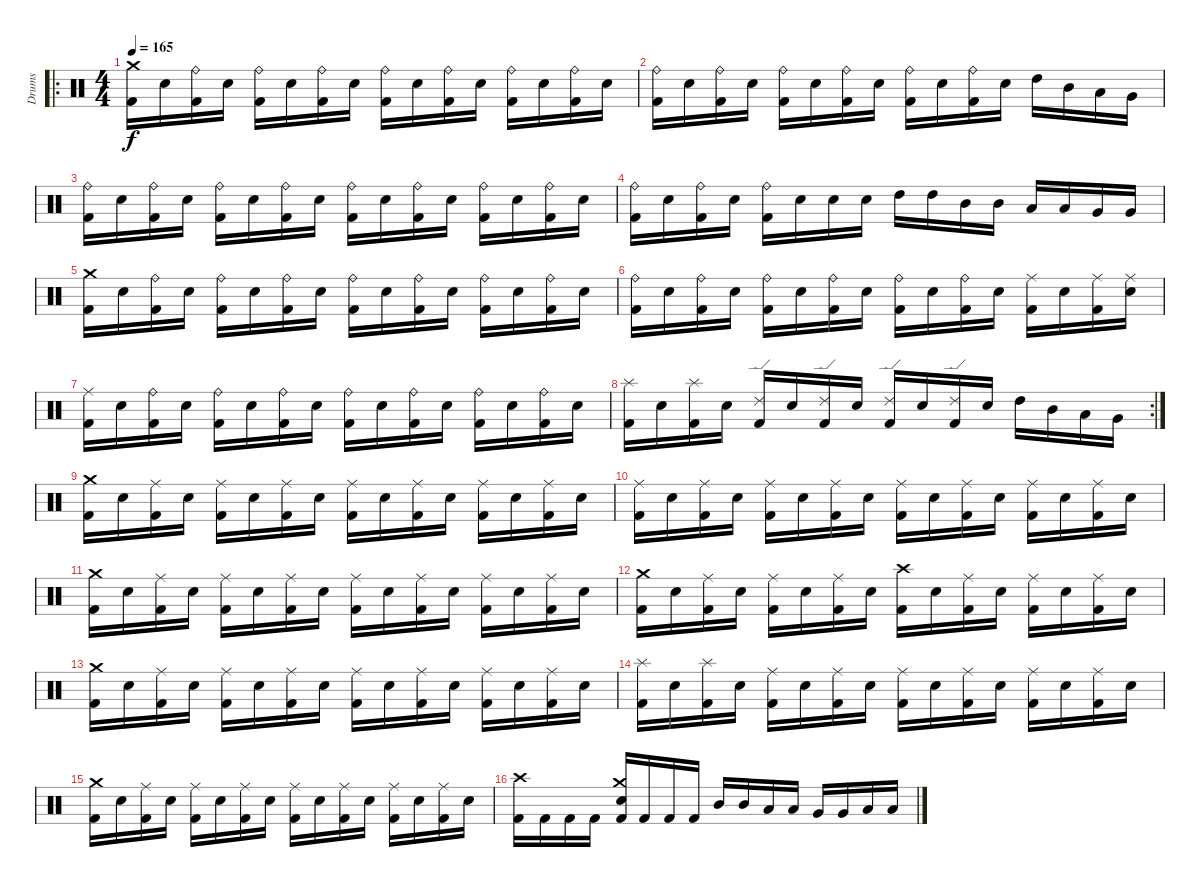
\track ("Drums" "Drums") {instrument percussion}
\staff {score}
\articulation defaults
\ro
\ts (4 4)
\tempo 165
\clef neutral
\ks c
("Kick (hit) 2" "Crash medium (hit)").16{dy f} "Electric Snare (hit)".16 ("Kick (hit) 2" "Ride (bell)").16 "Electric Snare (hit)".16 ("Kick (hit) 2" "Ride (bell)").16 "Electric Snare (hit)".16 ("Kick (hit) 2" "Ride (bell)").16 "Electric Snare (hit)".16 ("Kick (hit) 2" "Ride (bell)").16 "Electric Snare (hit)".16 ("Kick (hit) 2" "Ride (bell)").16 "Electric Snare (hit)".16 ("Kick (hit) 2" "Ride (bell)").16 "Electric Snare (hit)".16 ("Kick (hit) 2" "Ride (bell)").16 "Electric Snare (hit)".16 |
("Kick (hit) 2" "Ride (bell)").16 "Electric Snare (hit)".16 ("Kick (hit) 2" "Ride (bell)").16 "Electric Snare (hit)".16 ("Kick (hit) 2" "Ride (bell)").16 "Electric Snare (hit)".16 ("Kick (hit) 2" "Ride (bell)").16 "Electric Snare (hit)".16 ("Kick (hit) 2" "Ride (bell)").16 "Electric Snare (hit)".16 ("Kick (hit) 2" "Ride (bell)").16 "Electric Snare (hit)".16 "High Tom (hit)".16 "Mid Tom (hit)".16 "Low Tom (hit)".16 "Very Low Tom (hit)".16 |
("Kick (hit) 2" "Ride (bell)").16 "Electric Snare (hit)".16 ("Kick (hit) 2" "Ride (bell)").16 "Electric Snare (hit)".16 ("Kick (hit) 2" "Ride (bell)").16 "Electric Snare (hit)".16 ("Kick (hit) 2" "Ride (bell)").16 "Electric Snare (hit)".16 ("Kick (hit) 2" "Ride (bell)").16 "Electric Snare (hit)".16 ("Kick (hit) 2" "Ride (bell)").16 "Electric Snare (hit)".16 ("Kick (hit) 2" "Ride (bell)").16 "Electric Snare (hit)".16 ("Kick (hit) 2" "Ride (bell)").16 "Electric Snare (hit)".16 |
("Kick (hit) 2" "Ride (bell)").16 "Electric Snare (hit)".16 ("Kick (hit) 2" "Ride (bell)").16 "Electric Snare (hit)".16 ("Kick (hit) 2" "Ride (bell)").16 "Electric Snare (hit)".16 "Electric Snare (hit)".16 "Electric Snare (hit)".16 "High Tom (hit)".16 "High Tom (hit)".16 "Mid Tom (hit)".16 "Mid Tom (hit)".16 "Low Tom (hit)".16 "Low Tom (hit)".16 "Very Low Tom (hit)".16 "Very Low Tom (hit)".16 |
("Kick (hit) 2" "Crash medium (hit)").16 "Electric Snare (hit)".16 ("Kick (hit) 2" "Ride (bell)").16 "Electric Snare (hit)".16 ("Kick (hit) 2" "Ride (bell)").16 "Electric Snare (hit)".16 ("Kick (hit) 2" "Ride (bell)").16 "Electric Snare (hit)".16 ("Kick (hit) 2" "Ride (bell)").16 "Electric Snare (hit)".16 ("Kick (hit) 2" "Ride (bell)").16 "Electric Snare (hit)".16 ("Kick (hit) 2" "Ride (bell)").16 "Electric Snare (hit)".16 ("Kick (hit) 2" "Ride (bell)").16 "Electric Snare (hit)".16 |
("Kick (hit) 2" "Ride (bell)").16 "Electric Snare (hit)".16 ("Kick (hit) 2" "Ride (bell)").16 "Electric Snare (hit)".16 ("Kick (hit) 2" "Ride (bell)").16 "Electric Snare (hit)".16 ("Kick (hit) 2" "Ride (bell)").16 "Electric Snare (hit)".16 ("Kick (hit) 2" "Ride (bell)").16 "Electric Snare (hit)".16 ("Kick (hit) 2" "Ride (bell)").16 "Electric Snare (hit)".16 ("Kick (hit) 2" "Ride (middle)").16 "Electric Snare (hit)".16 ("Kick (hit) 2" "Ride (middle)").16 ("Electric Snare (hit)" "Ride (middle)").16 |
("Kick (hit) 2" "Ride (middle)").16 "Electric Snare (hit)".16 ("Kick (hit) 2" "Ride (bell)").16 "Electric Snare (hit)".16 ("Kick (hit) 2" "Ride (bell)").16 "Electric Snare (hit)".16 ("Kick (hit) 2" "Ride (bell)").16 "Electric Snare (hit)".16 ("Kick (hit) 2" "Ride (bell)").16 "Electric Snare (hit)".16 ("Kick (hit) 2" "Ride (bell)").16 "Electric Snare (hit)".16 ("Kick (hit) 2" "Ride (bell)").16 "Electric Snare (hit)".16 ("Kick (hit) 2" "Ride (bell)").16 "Electric Snare (hit)".16 |
\rc 2
("Kick (hit) 2" "Splash (hit)").16 "Electric Snare (hit)".16 ("Kick (hit) 2" "Splash (hit)").16 "Electric Snare (hit)".16 ("Kick (hit) 2" "Ride (edge) 2").16 "Electric Snare (hit)".16 ("Kick (hit) 2" "Ride (edge) 2").16 "Electric Snare (hit)".16 ("Kick (hit) 2" "Ride (edge) 2").16 "Electric Snare (hit)".16 ("Kick (hit) 2" "Ride (edge) 2").16 "Electric Snare (hit)".16 "High Tom (hit)".16 "Mid Tom (hit)".16 "Low Tom (hit)".16 "Very Low Tom (hit)".16 |
("Kick (hit) 2" "Crash medium (hit)").16 "Electric Snare (hit)".16 ("Kick (hit) 2" "Ride (middle)").16 "Electric Snare (hit)".16 ("Kick (hit) 2" "Ride (middle)").16 "Electric Snare (hit)".16 ("Kick (hit) 2" "Ride (middle)").16 "Electric Snare (hit)".16 ("Kick (hit) 2" "Ride (middle)").16 "Electric Snare (hit)".16 ("Kick (hit) 2" "Ride (middle)").16 "Electric Snare (hit)".16 ("Kick (hit) 2" "Ride (middle)").16 "Electric Snare (hit)".16 ("Kick (hit) 2" "Ride (middle)").16 "Electric Snare (hit)".16 |
("Kick (hit) 2" "Ride (middle)").16 "Electric Snare (hit)".16 ("Kick (hit) 2" "Ride (middle)").16 "Electric Snare (hit)".16 ("Kick (hit) 2" "Ride (middle)").16 "Electric Snare (hit)".16 ("Kick (hit) 2" "Ride (middle)").16 "Electric Snare (hit)".16 ("Kick (hit) 2" "Ride (middle)").16 "Electric Snare (hit)".16 ("Kick (hit) 2" "Ride (middle)").16 "Electric Snare (hit)".16 ("Kick (hit) 2" "Ride (middle)").16 "Electric Snare (hit)".16 ("Kick (hit) 2" "Ride (middle)").16 "Electric Snare (hit)".16 |
("Kick (hit) 2" "Crash medium (hit)").16 "Electric Snare (hit)".16 ("Kick (hit) 2" "Ride (middle)").16 "Electric Snare (hit)".16 ("Kick (hit) 2" "Ride (middle)").16 "Electric Snare (hit)".16 ("Kick (hit) 2" "Ride (middle)").16 "Electric Snare (hit)".16 ("Kick (hit) 2" "Ride (middle)").16 "Electric Snare (hit)".16 ("Kick (hit) 2" "Ride (middle)").16 "Electric Snare (hit)".16 ("Kick (hit) 2" "Ride (middle)").16 "Electric Snare (hit)".16 ("Kick (hit) 2" "Ride (middle)").16 "Electric Snare (hit)".16 |
("Kick (hit) 2" "Crash medium (hit)").16 "Electric Snare (hit)".16 ("Kick (hit) 2" "Ride (middle)").16 "Electric Snare (hit)".16 ("Kick (hit) 2" "Ride (middle)").16 "Electric Snare (hit)".16 ("Kick (hit) 2" "Ride (middle)").16 "Electric Snare (hit)".16 ("Kick (hit) 2" "Crash high (hit)").16 "Electric Snare (hit)".16 ("Kick (hit) 2" "Ride (middle)").16 "Electric Snare (hit)".16 ("Kick (hit) 2" "Ride (middle)").16 "Electric Snare (hit)".16 ("Kick (hit) 2" "Ride (middle)").16 "Electric Snare (hit)".16 |
("Kick (hit) 2" "Crash medium (hit)").16 "Electric Snare (hit)".16 ("Kick (hit) 2" "Ride (middle)").16 "Electric Snare (hit)".16 ("Kick (hit) 2" "Ride (middle)").16 "Electric Snare (hit)".16 ("Kick (hit) 2" "Ride (middle)").16 "Electric Snare (hit)".16 ("Kick (hit) 2" "Ride (middle)").16 "Electric Snare (hit)".16 ("Kick (hit) 2" "Ride (middle)").16 "Electric Snare (hit)".16 ("Kick (hit) 2" "Ride (middle)").16 "Electric Snare (hit)".16 ("Kick (hit) 2" "Ride (middle)").16 "Electric Snare (hit)".16 |
("Kick (hit) 2" "Splash (hit)").16 "Electric Snare (hit)".16 ("Kick (hit) 2" "Splash (hit)").16 "Electric Snare (hit)".16 ("Kick (hit) 2" "Ride (middle)").16 "Electric Snare (hit)".16 ("Kick (hit) 2" "Ride (middle)").16 "Electric Snare (hit)".16 ("Kick (hit) 2" "Ride (middle)").16 "Electric Snare (hit)".16 ("Kick (hit) 2" "Ride (middle)").16 "Electric Snare (hit)".16 ("Kick (hit) 2" "Ride (middle)").16 "Electric Snare (hit)".16 ("Kick (hit) 2" "Ride (middle)").16 "Electric Snare (hit)".16 |
("Kick (hit) 2" "Crash medium (hit)").16 "Electric Snare (hit)".16 ("Kick (hit) 2" "Ride (middle)").16 "Electric Snare (hit)".16 ("Kick (hit) 2" "Ride (middle)").16 "Electric Snare (hit)".16 ("Kick (hit) 2" "Ride (middle)").16 "Electric Snare (hit)".16 ("Kick (hit) 2" "Ride (middle)").16 "Electric Snare (hit)".16 ("Kick (hit) 2" "Ride (middle)").16 "Electric Snare (hit)".16 ("Kick (hit) 2" "Ride (middle)").16 "Electric Snare (hit)".16 ("Kick (hit) 2" "Ride (middle)").16 "Electric Snare (hit)".16 |
("Kick (hit) 2" "Crash high (hit)").16 "Kick (hit) 2".16 "Kick (hit) 2".16 "Kick (hit) 2".16 ("Kick (hit) 2" "Electric Snare (hit)" "Crash medium (hit)").16 "Kick (hit) 2".16 "Kick (hit) 2".16 "Kick (hit) 2".16 "Mid Tom (hit)".16 "Mid Tom (hit)".16 "Low Tom (hit)".16 "Low Tom (hit)".16 "Very Low Tom (hit)".16 "Very Low Tom (hit)".16 "Low Floor Tom (hit)".16 "Low Floor Tom (hit)".16
